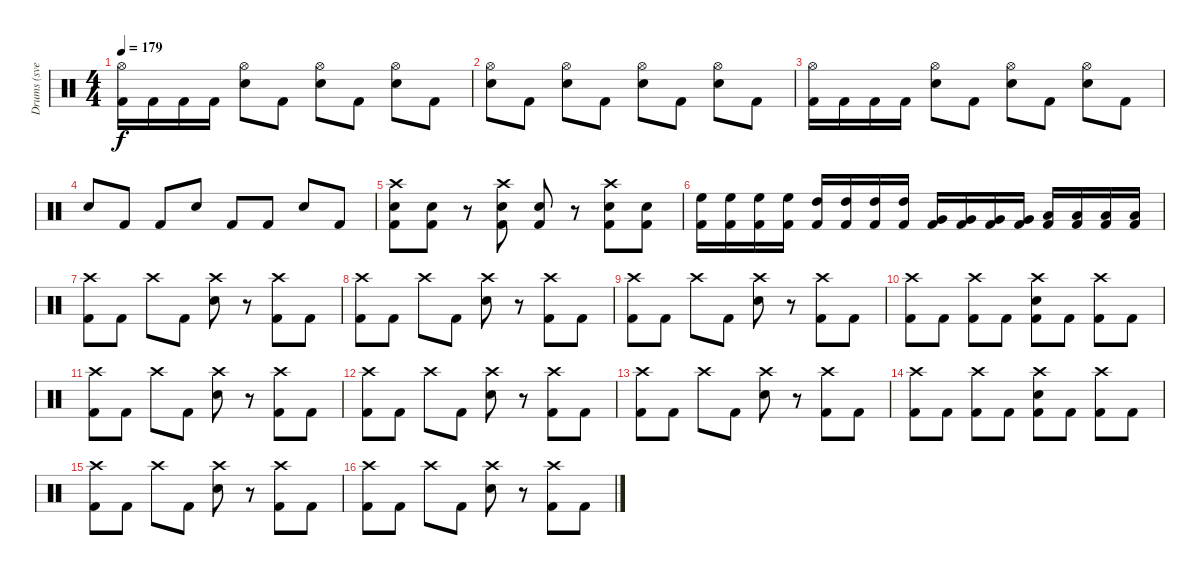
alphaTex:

\track ("Drums (svelle)" "Drums (sve") {instrument percussion}
\staff {score}
\articulation defaults
\ts (4 4)
\tempo 179
\clef neutral
\ks c
("Hi-Hat (open)" "Kick (hit) 2").16{dy f} "Kick (hit) 2".16 "Kick (hit) 2".16 "Kick (hit) 2".16 ("Hi-Hat (open)" "Electric Snare (hit)").8 "Kick (hit) 2".8 ("Hi-Hat (open)" "Electric Snare (hit)").8 "Kick (hit) 2".8 ("Hi-Hat (open)" "Electric Snare (hit)").8 "Kick (hit) 2".8 |
("Hi-Hat (open)" "Electric Snare (hit)").8 "Kick (hit) 2".8 ("Hi-Hat (open)" "Electric Snare (hit)").8 "Kick (hit) 2".8 ("Hi-Hat (open)" "Electric Snare (hit)").8 "Kick (hit) 2".8 ("Hi-Hat (open)" "Electric Snare (hit)").8 "Kick (hit) 2".8 |
("Hi-Hat (open)" "Kick (hit) 2").16 "Kick (hit) 2".16 "Kick (hit) 2".16 "Kick (hit) 2".16 ("Hi-Hat (open)" "Electric Snare (hit)").8 "Kick (hit) 2".8 ("Hi-Hat (open)" "Electric Snare (hit)").8 "Kick (hit) 2".8 ("Hi-Hat (open)" "Electric Snare (hit)").8 "Kick (hit) 2".8 |
"Electric Snare (hit)".8 "Kick (hit) 2".8 "Kick (hit) 2".8 "Electric Snare (hit)".8 "Kick (hit) 2".8 "Kick (hit) 2".8 "Electric Snare (hit)".8 "Kick (hit) 2".8 |
("Crash high (hit)" "Electric Snare (hit)" "Kick (hit) 2").8 ("Electric Snare (hit)" "Kick (hit) 2").8 r.8 ("Crash high (hit)" "Electric Snare (hit)" "Kick (hit) 2").8 ("Electric Snare (hit)" "Kick (hit) 2").8 r.8 ("Crash high (hit)" "Electric Snare (hit)" "Kick (hit) 2").8 ("Electric Snare (hit)" "Kick (hit) 2").8 |
("High Floor Tom (hit)" "Kick (hit) 2").16 ("High Floor Tom (hit)" "Kick (hit) 2").16 ("High Floor Tom (hit)" "Kick (hit) 2").16 ("High Floor Tom (hit)" "Kick (hit) 2").16 ("High Tom (hit)" "Kick (hit) 2").16 ("High Tom (hit)" "Kick (hit) 2").16 ("High Tom (hit)" "Kick (hit) 2").16 ("High Tom (hit)" "Kick (hit) 2").16 ("Very Low Tom (hit)" "Kick (hit) 2").16 ("Very Low Tom (hit)" "Kick (hit) 2").16 ("Very Low Tom (hit)" "Kick (hit) 2").16 ("Very Low Tom (hit)" "Kick (hit) 2").16 ("Low Floor Tom (hit)" "Kick (hit) 2").16 ("Low Floor Tom (hit)" "Kick (hit) 2").16 ("Low Floor Tom (hit)" "Kick (hit) 2").16 ("Low Floor Tom (hit)" "Kick (hit) 2").16 |
("Crash high (hit)" "Kick (hit) 2").8 "Kick (hit) 2".8 "Crash high (hit)".8 "Kick (hit) 2".8 ("Crash high (hit)" "Electric Snare (hit)").8 r.8 ("Crash high (hit)" "Kick (hit) 2").8 "Kick (hit) 2".8 |
("Crash high (hit)" "Kick (hit) 2").8 "Kick (hit) 2".8 "Crash high (hit)".8 "Kick (hit) 2".8 ("Crash high (hit)" "Electric Snare (hit)").8 r.8 ("Crash high (hit)" "Kick (hit) 2").8 "Kick (hit) 2".8 |
("Crash high (hit)" "Kick (hit) 2").8 "Kick (hit) 2".8 "Crash high (hit)".8 "Kick (hit) 2".8 ("Crash high (hit)" "Electric Snare (hit)").8 r.8 ("Crash high (hit)" "Kick (hit) 2").8 "Kick (hit) 2".8 |
("Crash high (hit)" "Kick (hit) 2").8 "Kick (hit) 2".8 ("Crash high (hit)" "Kick (hit) 2").8 "Kick (hit) 2".8 ("Crash high (hit)" "Electric Snare (hit)" "Kick (hit) 2").8 "Kick (hit) 2".8 ("Crash high (hit)" "Kick (hit) 2").8 "Kick (hit) 2".8 |
("Crash high (hit)" "Kick (hit) 2").8 "Kick (hit) 2".8 "Crash high (hit)".8 "Kick (hit) 2".8 ("Crash high (hit)" "Electric Snare (hit)").8 r.8 ("Crash high (hit)" "Kick (hit) 2").8 "Kick (hit) 2".8 |
("Crash high (hit)" "Kick (hit) 2").8 "Kick (hit) 2".8 "Crash high (hit)".8 "Kick (hit) 2".8 ("Crash high (hit)" "Electric Snare (hit)").8 r.8 ("Crash high (hit)" "Kick (hit) 2").8 "Kick (hit) 2".8 |
("Crash high (hit)" "Kick (hit) 2").8 "Kick (hit) 2".8 "Crash high (hit)".8 "Kick (hit) 2".8 ("Crash high (hit)" "Electric Snare (hit)").8 r.8 ("Crash high (hit)" "Kick (hit) 2").8 "Kick (hit) 2".8 |
("Crash high (hit)" "Kick (hit) 2").8 "Kick (hit) 2".8 ("Crash high (hit)" "Kick (hit) 2").8 "Kick (hit) 2".8 ("Crash high (hit)" "Electric Snare (hit)" "Kick (hit) 2").8 "Kick (hit) 2".8 ("Crash high (hit)" "Kick (hit) 2").8 "Kick (hit) 2".8 |
("Crash high (hit)" "Kick (hit) 2").8 "Kick (hit) 2".8 "Crash high (hit)".8 "Kick (hit) 2".8 ("Crash high (hit)" "Electric Snare (hit)").8 r.8 ("Crash high (hit)" "Kick (hit) 2").8 "Kick (hit) 2".8 |
("Crash high (hit)" "Kick (hit) 2").8 "Kick (hit) 2".8 "Crash high (hit)".8 "Kick (hit) 2".8 ("Crash high (hit)" "Electric Snare (hit)").8 r.8 ("Crash high (hit)" "Kick (hit) 2").8 "Kick (hit) 2".8
